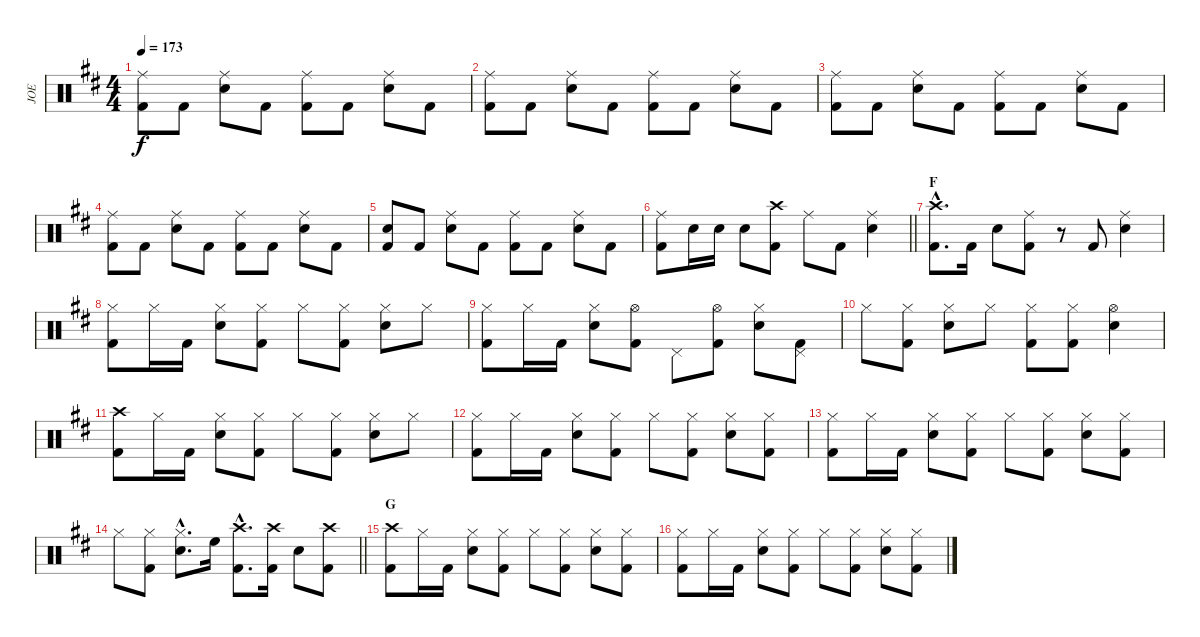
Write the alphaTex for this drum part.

\track ("JOE" "JOE") {instrument percussion}
\staff {score}
\articulation defaults
\ts (4 4)
\tempo 173
\clef neutral
\ks bminor
("Ride (middle)" "Kick (hit) 2").8{dy f} "Kick (hit) 2".8 ("Ride (middle)" "Snare (hit) 2").8 "Kick (hit) 2".8 ("Ride (middle)" "Kick (hit) 2").8 "Kick (hit) 2".8 ("Ride (middle)" "Snare (hit) 2").8 "Kick (hit) 2".8 |
("Ride (middle)" "Kick (hit) 2").8 "Kick (hit) 2".8 ("Ride (middle)" "Snare (hit) 2").8 "Kick (hit) 2".8 ("Ride (middle)" "Kick (hit) 2").8 "Kick (hit) 2".8 ("Ride (middle)" "Snare (hit) 2").8 "Kick (hit) 2".8 |
("Ride (middle)" "Kick (hit) 2").8 "Kick (hit) 2".8 ("Ride (middle)" "Snare (hit) 2").8 "Kick (hit) 2".8 ("Ride (middle)" "Kick (hit) 2").8 "Kick (hit) 2".8 ("Ride (middle)" "Snare (hit) 2").8 "Kick (hit) 2".8 |
("Ride (middle)" "Kick (hit) 2").8 "Kick (hit) 2".8 ("Ride (middle)" "Snare (hit) 2").8 "Kick (hit) 2".8 ("Ride (middle)" "Kick (hit) 2").8 "Kick (hit) 2".8 ("Ride (middle)" "Snare (hit) 2").8 "Kick (hit) 2".8 |
("Snare (hit)" "Kick (hit) 2").8 "Kick (hit) 2".8 ("Ride (middle)" "Snare (hit) 2").8 "Kick (hit) 2".8 ("Ride (middle)" "Kick (hit) 2").8 "Kick (hit) 2".8 ("Ride (middle)" "Snare (hit) 2").8 "Kick (hit) 2".8 |
\barLineRight lightlight
("Ride (middle)" "Kick (hit) 2").8 "Snare (hit) 2".16 "Snare (hit) 2".16 "Snare (hit) 2".8 ("Crash high (hit)" "Kick (hit) 2").8 "Ride (middle)".8 "Kick (hit) 2".8 ("Ride (middle)" "Snare (hit) 2").4 |
\section ("" "F")
("Crash high (hit)"{hac} "Kick (hit) 2"{hac}).8{d} "Kick (hit) 2".16 "Snare (hit) 2".8 ("Ride (middle)" "Kick (hit) 2").8 r.8 "Kick (hit) 2".8 ("Ride (middle)" "Snare (hit) 2").4 |
("Hi-Hat (closed)" "Kick (hit) 2").8 "Hi-Hat (closed)".16 "Kick (hit) 2".16 ("Hi-Hat (closed)" "Snare (hit) 2").8 ("Hi-Hat (closed)" "Kick (hit) 2").8 "Hi-Hat (closed)".8 ("Hi-Hat (closed)" "Kick (hit) 2").8 ("Hi-Hat (closed)" "Snare (hit) 2").8 "Hi-Hat (closed)".8 |
("Hi-Hat (closed)" "Kick (hit) 2").8 "Hi-Hat (closed)".16 "Kick (hit) 2".16 ("Hi-Hat (closed)" "Snare (hit) 2").8 ("Hi-Hat (open)" "Kick (hit) 2").8 "Pedal Hi-Hat (hit)".8 ("Hi-Hat (open)" "Kick (hit) 2").8 ("Hi-Hat (closed)" "Snare (hit) 2").8 ("Pedal Hi-Hat (hit)" "Kick (hit) 2").8 |
"Hi-Hat (closed)".8 ("Hi-Hat (closed)" "Kick (hit) 2").8 ("Hi-Hat (closed)" "Snare (hit) 2").8 "Hi-Hat (closed)".8 ("Hi-Hat (closed)" "Kick (hit) 2").8 ("Hi-Hat (closed)" "Kick (hit) 2").8 ("Hi-Hat (open)" "Snare (hit) 2").4 |
("Crash high (hit)" "Kick (hit) 2").8 "Hi-Hat (closed)".16 "Kick (hit) 2".16 ("Hi-Hat (closed)" "Snare (hit) 2").8 ("Hi-Hat (closed)" "Kick (hit) 2").8 "Hi-Hat (closed)".8 ("Hi-Hat (closed)" "Kick (hit) 2").8 ("Hi-Hat (closed)" "Snare (hit) 2").8 "Hi-Hat (closed)".8 |
("Hi-Hat (closed)" "Kick (hit) 2").8 "Hi-Hat (closed)".16 "Kick (hit) 2".16 ("Hi-Hat (closed)" "Snare (hit) 2").8 ("Hi-Hat (closed)" "Kick (hit) 2").8 "Hi-Hat (closed)".8 ("Hi-Hat (closed)" "Kick (hit) 2").8 ("Hi-Hat (closed)" "Snare (hit) 2").8 ("Hi-Hat (closed)" "Kick (hit) 2").8 |
("Hi-Hat (closed)" "Kick (hit) 2").8 "Hi-Hat (closed)".16 "Kick (hit) 2".16 ("Hi-Hat (closed)" "Snare (hit) 2").8 ("Hi-Hat (closed)" "Kick (hit) 2").8 "Hi-Hat (closed)".8 ("Hi-Hat (closed)" "Kick (hit) 2").8 ("Hi-Hat (closed)" "Snare (hit) 2").8 ("Hi-Hat (closed)" "Kick (hit) 2").8 |
\barLineRight lightlight "Hi-Hat (closed)".8
("Hi-Hat (closed)" "Kick (hit) 2").8 ("Hi-Hat (closed)"{hac} "Snare (hit) 2"{hac}).8{d} "High Floor Tom (hit)".16 ("Crash high (hit)"{hac} "Kick (hit) 2"{hac}).8{d} ("Crash high (hit)" "Kick (hit) 2").16 "Snare (hit) 2".8 ("Crash high (hit)" "Kick (hit) 2").8 |
\section ("" "G")
("Crash high (hit)" "Kick (hit) 2").8 "Hi-Hat (closed)".16 "Kick (hit) 2".16 ("Hi-Hat (closed)" "Snare (hit) 2").8 ("Hi-Hat (closed)" "Kick (hit) 2").8 "Hi-Hat (closed)".8 ("Hi-Hat (closed)" "Kick (hit) 2").8 ("Hi-Hat (closed)" "Snare (hit) 2").8 ("Hi-Hat (closed)" "Kick (hit) 2").8 |
("Hi-Hat (closed)" "Kick (hit) 2").8 "Hi-Hat (closed)".16 "Kick (hit) 2".16 ("Hi-Hat (closed)" "Snare (hit) 2").8 ("Hi-Hat (closed)" "Kick (hit) 2").8 "Hi-Hat (closed)".8 ("Hi-Hat (closed)" "Kick (hit) 2").8 ("Hi-Hat (closed)" "Snare (hit) 2").8 ("Hi-Hat (closed)" "Kick (hit) 2").8
